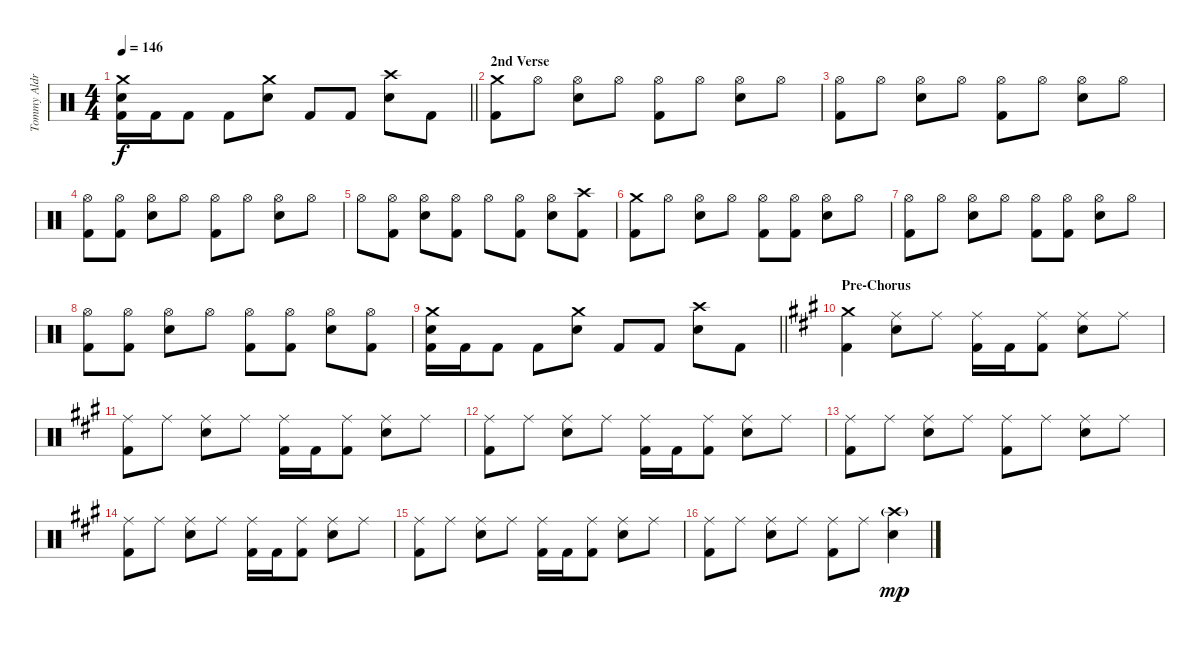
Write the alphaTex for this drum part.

\track ("Tommy Aldridge Drums" "Tommy Aldr") {instrument percussion}
\staff {score}
\articulation defaults
\ts (4 4)
\tempo 146
\clef neutral
\barLineRight lightlight
\ks aminor
("Crash medium (hit)" "Electric Snare (hit)" "Kick (hit) 2").16{dy f} "Kick (hit) 2".16 "Kick (hit) 2".8 "Kick (hit) 2".8 ("Crash medium (hit)" "Electric Snare (hit)").8 "Kick (hit) 2".8 "Kick (hit) 2".8 ("Crash high (hit)" "Electric Snare (hit)").8 "Kick (hit) 2".8 |
\section ("" "2nd Verse")
("Crash medium (hit)" "Kick (hit) 2").8 "Hi-Hat (open)".8 ("Hi-Hat (open)" "Electric Snare (hit)").8 "Hi-Hat (open)".8 ("Hi-Hat (open)" "Kick (hit) 2").8 "Hi-Hat (open)".8 ("Hi-Hat (open)" "Electric Snare (hit)").8 "Hi-Hat (open)".8 |
("Hi-Hat (open)" "Kick (hit) 2").8 "Hi-Hat (open)".8 ("Hi-Hat (open)" "Electric Snare (hit)").8 "Hi-Hat (open)".8 ("Hi-Hat (open)" "Kick (hit) 2").8 "Hi-Hat (open)".8 ("Hi-Hat (open)" "Electric Snare (hit)").8 "Hi-Hat (open)".8 |
("Hi-Hat (open)" "Kick (hit) 2").8 ("Hi-Hat (open)" "Kick (hit) 2").8 ("Hi-Hat (open)" "Electric Snare (hit)").8 "Hi-Hat (open)".8 ("Hi-Hat (open)" "Kick (hit) 2").8 "Hi-Hat (open)".8 ("Hi-Hat (open)" "Electric Snare (hit)").8 "Hi-Hat (open)".8 |
"Hi-Hat (open)".8 ("Hi-Hat (open)" "Kick (hit) 2").8 ("Hi-Hat (open)" "Electric Snare (hit)").8 ("Hi-Hat (open)" "Kick (hit) 2").8 "Hi-Hat (open)".8 ("Hi-Hat (open)" "Kick (hit) 2").8 ("Hi-Hat (open)" "Electric Snare (hit)").8 ("Crash high (hit)" "Kick (hit) 2").8 |
("Crash medium (hit)" "Kick (hit) 2").8 "Hi-Hat (open)".8 ("Hi-Hat (open)" "Electric Snare (hit)").8 "Hi-Hat (open)".8 ("Hi-Hat (open)" "Kick (hit) 2").8 ("Hi-Hat (open)" "Kick (hit) 2").8 ("Hi-Hat (open)" "Electric Snare (hit)").8 "Hi-Hat (open)".8 |
("Hi-Hat (open)" "Kick (hit) 2").8 "Hi-Hat (open)".8 ("Hi-Hat (open)" "Electric Snare (hit)").8 "Hi-Hat (open)".8 ("Hi-Hat (open)" "Kick (hit) 2").8 ("Hi-Hat (open)" "Kick (hit) 2").8 ("Hi-Hat (open)" "Electric Snare (hit)").8 "Hi-Hat (open)".8 |
("Hi-Hat (open)" "Kick (hit) 2").8 ("Hi-Hat (open)" "Kick (hit) 2").8 ("Hi-Hat (open)" "Electric Snare (hit)").8 "Hi-Hat (open)".8 ("Hi-Hat (open)" "Kick (hit) 2").8 ("Hi-Hat (open)" "Kick (hit) 2").8 ("Hi-Hat (open)" "Electric Snare (hit)").8 ("Hi-Hat (open)" "Kick (hit) 2").8 |
\barLineRight lightlight
("Crash medium (hit)" "Electric Snare (hit)" "Kick (hit) 2").16 "Kick (hit) 2".16 "Kick (hit) 2".8 "Kick (hit) 2".8 ("Crash medium (hit)" "Electric Snare (hit)").8 "Kick (hit) 2".8 "Kick (hit) 2".8 ("Crash high (hit)" "Electric Snare (hit)").8 "Kick (hit) 2".8 |
\section ("" "Pre-Chorus")
\ks f#minor
("Crash medium (hit)" "Kick (hit) 2").4 ("Ride (middle)" "Electric Snare (hit)").8 "Ride (middle)".8 ("Ride (middle)" "Kick (hit) 2").16 "Kick (hit) 2".16 ("Ride (middle)" "Kick (hit) 2").8 ("Ride (middle)" "Electric Snare (hit)").8 "Ride (middle)".8 |
("Ride (middle)" "Kick (hit) 2").8 "Ride (middle)".8 ("Ride (middle)" "Electric Snare (hit)").8 "Ride (middle)".8 ("Ride (middle)" "Kick (hit) 2").16 "Kick (hit) 2".16 ("Ride (middle)" "Kick (hit) 2").8 ("Ride (middle)" "Electric Snare (hit)").8 "Ride (middle)".8 |
("Ride (middle)" "Kick (hit) 2").8 "Ride (middle)".8 ("Ride (middle)" "Electric Snare (hit)").8 "Ride (middle)".8 ("Ride (middle)" "Kick (hit) 2").16 "Kick (hit) 2".16 ("Ride (middle)" "Kick (hit) 2").8 ("Ride (middle)" "Electric Snare (hit)").8 "Ride (middle)".8 |
("Ride (middle)" "Kick (hit) 2").8 "Ride (middle)".8 ("Ride (middle)" "Electric Snare (hit)").8 "Ride (middle)".8 ("Ride (middle)" "Kick (hit) 2").8 "Ride (middle)".8 ("Ride (middle)" "Electric Snare (hit)").8 "Ride (middle)".8 |
("Ride (middle)" "Kick (hit) 2").8 "Ride (middle)".8 ("Ride (middle)" "Electric Snare (hit)").8 "Ride (middle)".8 ("Ride (middle)" "Kick (hit) 2").16 "Kick (hit) 2".16 ("Ride (middle)" "Kick (hit) 2").8 ("Ride (middle)" "Electric Snare (hit)").8 "Ride (middle)".8 |
("Ride (middle)" "Kick (hit) 2").8 "Ride (middle)".8 ("Ride (middle)" "Electric Snare (hit)").8 "Ride (middle)".8 ("Ride (middle)" "Kick (hit) 2").16 "Kick (hit) 2".16 ("Ride (middle)" "Kick (hit) 2").8 ("Ride (middle)" "Electric Snare (hit)").8 "Ride (middle)".8 |
("Ride (middle)" "Kick (hit) 2").8 "Ride (middle)".8 ("Ride (middle)" "Electric Snare (hit)").8 "Ride (middle)".8 ("Ride (middle)" "Kick (hit) 2").8 "Ride (middle)".8 ("Crash high (hit)"{g} "Electric Snare (hit)").4{dy mp}
